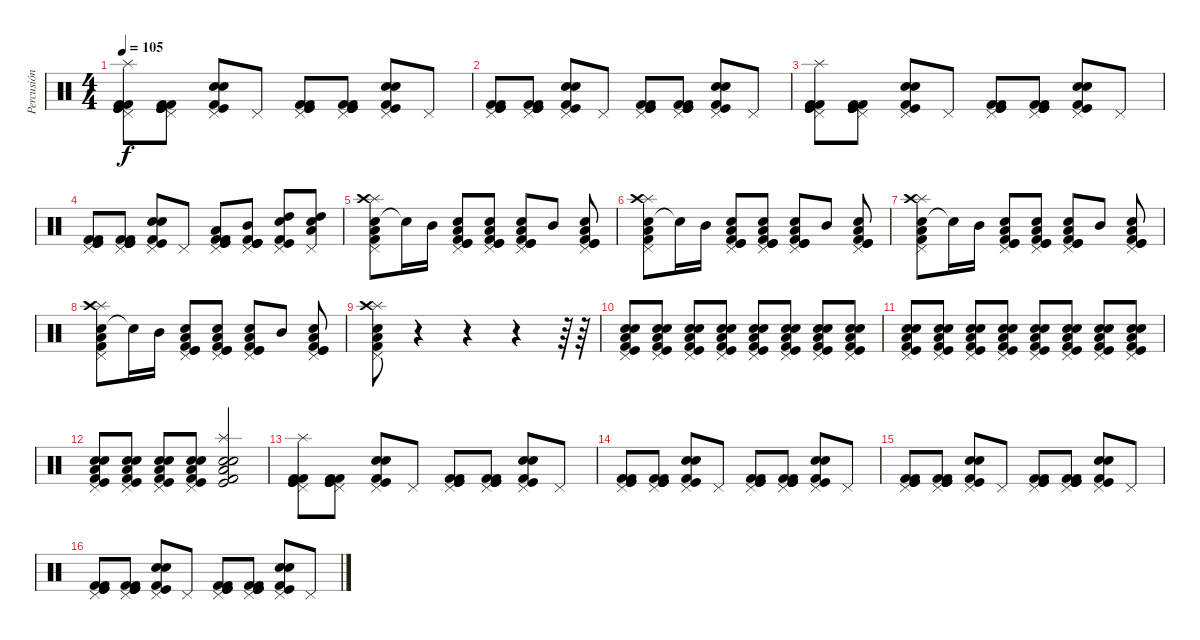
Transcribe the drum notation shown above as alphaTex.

\track ("Percusión" "Percusión") {instrument percussion}
\staff {score}
\articulation defaults
\ts (4 4)
\tempo 105
\clef neutral
\ks c
("Kick (hit) 2" "Kick (hit)" "Pedal Hi-Hat (hit)" "Splash (hit)" "Kick (hit) 2" "Kick (hit)").8{dy f} ("Kick (hit) 2" "Kick (hit)" "Pedal Hi-Hat (hit)" "Kick (hit) 2" "Kick (hit)" "Kick (hit)").8 ("Snare (hit) 2" "Pedal Hi-Hat (hit)" "Electric Snare (hit)" "Kick (hit)" "Kick (hit) 2").8 "Pedal Hi-Hat (hit)".8 ("Kick (hit) 2" "Kick (hit)" "Pedal Hi-Hat (hit)" "Kick (hit) 2" "Kick (hit)").8 ("Kick (hit) 2" "Kick (hit)" "Pedal Hi-Hat (hit)" "Kick (hit) 2" "Kick (hit)" "Kick (hit)").8 ("Snare (hit) 2" "Pedal Hi-Hat (hit)" "Electric Snare (hit)" "Kick (hit)" "Kick (hit) 2").8 "Pedal Hi-Hat (hit)".8 |
("Kick (hit) 2" "Kick (hit)" "Pedal Hi-Hat (hit)" "Kick (hit) 2" "Kick (hit)").8 ("Kick (hit) 2" "Kick (hit)" "Pedal Hi-Hat (hit)" "Kick (hit) 2" "Kick (hit)" "Kick (hit)").8 ("Snare (hit) 2" "Pedal Hi-Hat (hit)" "Electric Snare (hit)" "Kick (hit)" "Kick (hit) 2").8 "Pedal Hi-Hat (hit)".8 ("Kick (hit) 2" "Kick (hit)" "Pedal Hi-Hat (hit)" "Kick (hit) 2" "Kick (hit)").8 ("Kick (hit) 2" "Kick (hit)" "Pedal Hi-Hat (hit)" "Kick (hit) 2" "Kick (hit)" "Kick (hit)").8 ("Snare (hit) 2" "Pedal Hi-Hat (hit)" "Electric Snare (hit)" "Kick (hit)" "Kick (hit) 2").8 "Pedal Hi-Hat (hit)".8 |
("Kick (hit) 2" "Kick (hit)" "Pedal Hi-Hat (hit)" "Splash (hit)" "Kick (hit) 2" "Kick (hit)").8 ("Kick (hit) 2" "Kick (hit)" "Pedal Hi-Hat (hit)" "Kick (hit) 2" "Kick (hit)" "Kick (hit)").8 ("Snare (hit) 2" "Pedal Hi-Hat (hit)" "Electric Snare (hit)" "Kick (hit)" "Kick (hit) 2").8 "Pedal Hi-Hat (hit)".8 ("Kick (hit) 2" "Kick (hit)" "Pedal Hi-Hat (hit)" "Kick (hit) 2" "Kick (hit)").8 ("Kick (hit) 2" "Kick (hit)" "Pedal Hi-Hat (hit)" "Kick (hit) 2" "Kick (hit)" "Kick (hit)").8 ("Snare (hit) 2" "Pedal Hi-Hat (hit)" "Electric Snare (hit)" "Kick (hit)" "Kick (hit) 2").8 "Pedal Hi-Hat (hit)".8 |
("Kick (hit) 2" "Kick (hit)" "Pedal Hi-Hat (hit)" "Kick (hit) 2" "Kick (hit)").8 ("Kick (hit) 2" "Kick (hit)" "Pedal Hi-Hat (hit)" "Kick (hit) 2" "Kick (hit)" "Kick (hit)").8 ("Snare (hit) 2" "Pedal Hi-Hat (hit)" "Electric Snare (hit)" "Kick (hit)" "Kick (hit) 2").8 "Pedal Hi-Hat (hit)".8 ("Kick (hit) 2" "Kick (hit)" "Pedal Hi-Hat (hit)" "Low Tom (hit)" "Kick (hit) 2" "Kick (hit)").8 ("Kick (hit) 2" "Kick (hit)" "Pedal Hi-Hat (hit)" "Mid Tom (hit)" "Kick (hit)" "Kick (hit)").8 ("Snare (hit) 2" "Pedal Hi-Hat (hit)" "High Tom (hit)" "Kick (hit)" "Kick (hit) 2").8 ("Low Tom (hit)" "High Tom (hit)" "Snare (hit) 2" "Pedal Hi-Hat (hit)").8 |
("Electric Snare (hit)" "Low Tom (hit)" "Pedal Hi-Hat (hit)" "Kick (hit) 2" "Splash (hit)" "Crash high (hit)").8 "Snare (hit)"{t}.16 "Mid Tom (hit)".16 ("Snare (hit) 2" "Low Tom (hit)" "Pedal Hi-Hat (hit)" "Kick (hit) 2" "Kick (hit)" "Kick (hit)").8 ("Snare (hit) 2" "Low Tom (hit)" "Pedal Hi-Hat (hit)" "Kick (hit) 2" "Kick (hit)" "Kick (hit)").8 ("Electric Snare (hit)" "Low Tom (hit)" "Pedal Hi-Hat (hit)" "Kick (hit) 2" "Kick (hit)" "Kick (hit)").8 "Mid Tom (hit)".8 ("Snare (hit) 2" "Low Tom (hit)" "Pedal Hi-Hat (hit)" "Kick (hit) 2" "Kick (hit)" "Kick (hit)").8 |
("Electric Snare (hit)" "Low Tom (hit)" "Pedal Hi-Hat (hit)" "Kick (hit) 2" "Splash (hit)" "Crash high (hit)").8 "Snare (hit)"{t}.16 "Mid Tom (hit)".16 ("Snare (hit) 2" "Low Tom (hit)" "Pedal Hi-Hat (hit)" "Kick (hit) 2" "Kick (hit)" "Kick (hit)").8 ("Snare (hit) 2" "Low Tom (hit)" "Pedal Hi-Hat (hit)" "Kick (hit) 2" "Kick (hit)" "Kick (hit)").8 ("Electric Snare (hit)" "Low Tom (hit)" "Pedal Hi-Hat (hit)" "Kick (hit) 2" "Kick (hit)" "Kick (hit)").8 "Mid Tom (hit)".8 ("Snare (hit) 2" "Low Tom (hit)" "Pedal Hi-Hat (hit)" "Kick (hit) 2" "Kick (hit)" "Kick (hit)").8 |
("Electric Snare (hit)" "Low Tom (hit)" "Pedal Hi-Hat (hit)" "Kick (hit) 2" "Splash (hit)" "Crash high (hit)").8 "Snare (hit)"{t}.16 "Mid Tom (hit)".16 ("Snare (hit) 2" "Low Tom (hit)" "Pedal Hi-Hat (hit)" "Kick (hit) 2" "Kick (hit)" "Kick (hit)").8 ("Snare (hit) 2" "Low Tom (hit)" "Pedal Hi-Hat (hit)" "Kick (hit) 2" "Kick (hit)" "Kick (hit)").8 ("Electric Snare (hit)" "Low Tom (hit)" "Pedal Hi-Hat (hit)" "Kick (hit) 2" "Kick (hit)" "Kick (hit)").8 "Mid Tom (hit)".8 ("Snare (hit) 2" "Low Tom (hit)" "Pedal Hi-Hat (hit)" "Kick (hit) 2" "Kick (hit)" "Kick (hit)").8 |
("Electric Snare (hit)" "Low Tom (hit)" "Pedal Hi-Hat (hit)" "Kick (hit) 2" "Splash (hit)" "Crash high (hit)").8 "Snare (hit)"{t}.16 "Mid Tom (hit)".16 ("Snare (hit) 2" "Low Tom (hit)" "Pedal Hi-Hat (hit)" "Kick (hit) 2" "Kick (hit)" "Kick (hit)").8 ("Snare (hit) 2" "Low Tom (hit)" "Pedal Hi-Hat (hit)" "Kick (hit) 2" "Kick (hit)" "Kick (hit)").8 ("Electric Snare (hit)" "Low Tom (hit)" "Pedal Hi-Hat (hit)" "Kick (hit) 2" "Kick (hit)" "Kick (hit)").8 "Mid Tom (hit)".8 ("Snare (hit) 2" "Low Tom (hit)" "Pedal Hi-Hat (hit)" "Kick (hit) 2" "Kick (hit)" "Kick (hit)").8 |
("Electric Snare (hit)" "Low Tom (hit)" "Pedal Hi-Hat (hit)" "Kick (hit) 2" "Splash (hit)" "Crash high (hit)").8 r.4 r.4 r.4 r.64{volume 0} r.64{volume 13} |
("Electric Snare (hit)" "Low Tom (hit)" "Pedal Hi-Hat (hit)" "Kick (hit) 2" "Kick (hit)" "Snare (hit) 2").8 ("Electric Snare (hit)" "Low Tom (hit)" "Pedal Hi-Hat (hit)" "Kick (hit) 2" "Kick (hit)" "Snare (hit) 2").8 ("Electric Snare (hit)" "Low Tom (hit)" "Pedal Hi-Hat (hit)" "Kick (hit) 2" "Kick (hit)" "Snare (hit) 2").8 ("Electric Snare (hit)" "Low Tom (hit)" "Pedal Hi-Hat (hit)" "Kick (hit) 2" "Kick (hit)" "Snare (hit) 2").8 ("Electric Snare (hit)" "Low Tom (hit)" "Pedal Hi-Hat (hit)" "Kick (hit) 2" "Kick (hit)" "Snare (hit) 2").8 ("Electric Snare (hit)" "Low Tom (hit)" "Pedal Hi-Hat (hit)" "Kick (hit) 2" "Kick (hit)" "Snare (hit) 2").8 ("Electric Snare (hit)" "Low Tom (hit)" "Pedal Hi-Hat (hit)" "Kick (hit) 2" "Kick (hit)" "Snare (hit) 2").8 ("Electric Snare (hit)" "Low Tom (hit)" "Pedal Hi-Hat (hit)" "Kick (hit) 2" "Kick (hit)" "Snare (hit) 2").8 |
("Electric Snare (hit)" "Low Tom (hit)" "Pedal Hi-Hat (hit)" "Kick (hit) 2" "Kick (hit)" "Snare (hit) 2").8 ("Electric Snare (hit)" "Low Tom (hit)" "Pedal Hi-Hat (hit)" "Kick (hit) 2" "Kick (hit)" "Snare (hit) 2").8 ("Electric Snare (hit)" "Low Tom (hit)" "Pedal Hi-Hat (hit)" "Kick (hit) 2" "Kick (hit)" "Snare (hit) 2").8 ("Electric Snare (hit)" "Low Tom (hit)" "Pedal Hi-Hat (hit)" "Kick (hit) 2" "Kick (hit)" "Snare (hit) 2").8 ("Electric Snare (hit)" "Low Tom (hit)" "Pedal Hi-Hat (hit)" "Kick (hit) 2" "Kick (hit)" "Snare (hit) 2").8 ("Electric Snare (hit)" "Low Tom (hit)" "Pedal Hi-Hat (hit)" "Kick (hit) 2" "Kick (hit)" "Snare (hit) 2").8 ("Electric Snare (hit)" "Low Tom (hit)" "Pedal Hi-Hat (hit)" "Kick (hit) 2" "Kick (hit)" "Snare (hit) 2").8 ("Electric Snare (hit)" "Low Tom (hit)" "Pedal Hi-Hat (hit)" "Kick (hit) 2" "Kick (hit)" "Snare (hit) 2").8 |
("Electric Snare (hit)" "Low Tom (hit)" "Pedal Hi-Hat (hit)" "Kick (hit) 2" "Kick (hit)" "Snare (hit) 2").8 ("Electric Snare (hit)" "Low Tom (hit)" "Pedal Hi-Hat (hit)" "Kick (hit) 2" "Kick (hit)" "Snare (hit) 2").8 ("Electric Snare (hit)" "Low Tom (hit)" "Pedal Hi-Hat (hit)" "Kick (hit) 2" "Kick (hit)" "Snare (hit) 2").8 ("Electric Snare (hit)" "Low Tom (hit)" "Pedal Hi-Hat (hit)" "Kick (hit) 2" "Kick (hit)" "Snare (hit) 2").8 ("Electric Snare (hit)" "Low Tom (hit)" "Splash (hit)" "Kick (hit) 2" "Kick (hit)" "Snare (hit) 2").2 |
("Kick (hit) 2" "Kick (hit)" "Pedal Hi-Hat (hit)" "Splash (hit)" "Kick (hit) 2" "Kick (hit)").8 ("Kick (hit) 2" "Kick (hit)" "Pedal Hi-Hat (hit)" "Kick (hit) 2" "Kick (hit)" "Kick (hit)").8 ("Snare (hit) 2" "Pedal Hi-Hat (hit)" "Electric Snare (hit)" "Kick (hit)" "Kick (hit) 2").8 "Pedal Hi-Hat (hit)".8 ("Kick (hit) 2" "Kick (hit)" "Pedal Hi-Hat (hit)" "Kick (hit) 2" "Kick (hit)").8 ("Kick (hit) 2" "Kick (hit)" "Pedal Hi-Hat (hit)" "Kick (hit) 2" "Kick (hit)" "Kick (hit)").8 ("Snare (hit) 2" "Pedal Hi-Hat (hit)" "Electric Snare (hit)" "Kick (hit)" "Kick (hit) 2").8 "Pedal Hi-Hat (hit)".8 |
("Kick (hit) 2" "Kick (hit)" "Pedal Hi-Hat (hit)" "Kick (hit) 2" "Kick (hit)").8 ("Kick (hit) 2" "Kick (hit)" "Pedal Hi-Hat (hit)" "Kick (hit) 2" "Kick (hit)" "Kick (hit)").8 ("Snare (hit) 2" "Pedal Hi-Hat (hit)" "Electric Snare (hit)" "Kick (hit)" "Kick (hit) 2").8 "Pedal Hi-Hat (hit)".8 ("Kick (hit) 2" "Kick (hit)" "Pedal Hi-Hat (hit)" "Kick (hit) 2" "Kick (hit)").8 ("Kick (hit) 2" "Kick (hit)" "Pedal Hi-Hat (hit)" "Kick (hit) 2" "Kick (hit)" "Kick (hit)").8 ("Snare (hit) 2" "Pedal Hi-Hat (hit)" "Electric Snare (hit)" "Kick (hit)" "Kick (hit) 2").8 "Pedal Hi-Hat (hit)".8 |
("Kick (hit) 2" "Kick (hit)" "Pedal Hi-Hat (hit)" "Kick (hit) 2" "Kick (hit)").8 ("Kick (hit) 2" "Kick (hit)" "Pedal Hi-Hat (hit)" "Kick (hit) 2" "Kick (hit)" "Kick (hit)").8 ("Snare (hit) 2" "Pedal Hi-Hat (hit)" "Electric Snare (hit)" "Kick (hit)" "Kick (hit) 2").8 "Pedal Hi-Hat (hit)".8 ("Kick (hit) 2" "Kick (hit)" "Pedal Hi-Hat (hit)" "Kick (hit) 2" "Kick (hit)").8 ("Kick (hit) 2" "Kick (hit)" "Pedal Hi-Hat (hit)" "Kick (hit) 2" "Kick (hit)" "Kick (hit)").8 ("Snare (hit) 2" "Pedal Hi-Hat (hit)" "Electric Snare (hit)" "Kick (hit)" "Kick (hit) 2").8 "Pedal Hi-Hat (hit)".8 |
("Kick (hit) 2" "Kick (hit)" "Pedal Hi-Hat (hit)" "Kick (hit) 2" "Kick (hit)").8 ("Kick (hit) 2" "Kick (hit)" "Pedal Hi-Hat (hit)" "Kick (hit) 2" "Kick (hit)" "Kick (hit)").8 ("Snare (hit) 2" "Pedal Hi-Hat (hit)" "Electric Snare (hit)" "Kick (hit)" "Kick (hit) 2").8 "Pedal Hi-Hat (hit)".8 ("Kick (hit) 2" "Kick (hit)" "Pedal Hi-Hat (hit)" "Kick (hit) 2" "Kick (hit)").8 ("Kick (hit) 2" "Kick (hit)" "Pedal Hi-Hat (hit)" "Kick (hit) 2" "Kick (hit)" "Kick (hit)").8 ("Snare (hit) 2" "Pedal Hi-Hat (hit)" "Electric Snare (hit)" "Kick (hit)" "Kick (hit) 2").8 "Pedal Hi-Hat (hit)".8
